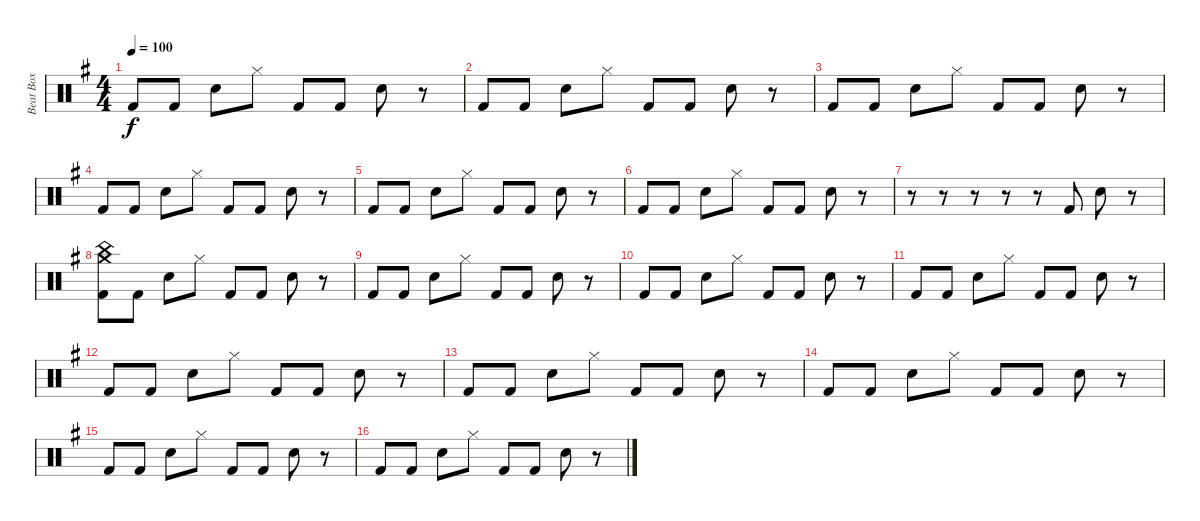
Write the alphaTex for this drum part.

\track ("Beat Box" "Beat Box") {instrument percussion}
\staff {score}
\articulation defaults
\ts (4 4)
\tempo 100
\clef neutral
\ks g "Kick (hit) 2".8{dy f} "Kick (hit) 2".8 "Snare (hit) 2".8 "Hi-Hat (closed)".8 "Kick (hit) 2".8 "Kick (hit) 2".8 "Snare (hit) 2".8
r.8 |
"Kick (hit) 2".8 "Kick (hit) 2".8 "Snare (hit) 2".8 "Hi-Hat (closed)".8 "Kick (hit) 2".8 "Kick (hit) 2".8 "Snare (hit) 2".8 r.8 |
"Kick (hit) 2".8 "Kick (hit) 2".8 "Snare (hit) 2".8 "Hi-Hat (closed)".8 "Kick (hit) 2".8 "Kick (hit) 2".8 "Snare (hit) 2".8 r.8 |
"Kick (hit) 2".8 "Kick (hit) 2".8 "Snare (hit) 2".8 "Hi-Hat (closed)".8 "Kick (hit) 2".8 "Kick (hit) 2".8 "Snare (hit) 2".8 r.8 |
"Kick (hit) 2".8 "Kick (hit) 2".8 "Snare (hit) 2".8 "Hi-Hat (closed)".8 "Kick (hit) 2".8 "Kick (hit) 2".8 "Snare (hit) 2".8 r.8 |
"Kick (hit) 2".8 "Kick (hit) 2".8 "Snare (hit) 2".8 "Hi-Hat (closed)".8 "Kick (hit) 2".8 "Kick (hit) 2".8 "Snare (hit) 2".8 r.8 |
r.8 r.8 r.8 r.8 r.8 "Kick (hit) 2".8 "Snare (hit) 2".8 r.8 |
("China (hit)" "Crash medium (hit)" "Kick (hit) 2").8 "Kick (hit) 2".8 "Snare (hit) 2".8 "Hi-Hat (closed)".8 "Kick (hit) 2".8 "Kick (hit) 2".8 "Snare (hit) 2".8 r.8 |
"Kick (hit) 2".8 "Kick (hit) 2".8 "Snare (hit) 2".8 "Hi-Hat (closed)".8 "Kick (hit) 2".8 "Kick (hit) 2".8 "Snare (hit) 2".8 r.8 |
"Kick (hit) 2".8 "Kick (hit) 2".8 "Snare (hit) 2".8 "Hi-Hat (closed)".8 "Kick (hit) 2".8 "Kick (hit) 2".8 "Snare (hit) 2".8 r.8 |
"Kick (hit) 2".8 "Kick (hit) 2".8 "Snare (hit) 2".8 "Hi-Hat (closed)".8 "Kick (hit) 2".8 "Kick (hit) 2".8 "Snare (hit) 2".8 r.8 |
"Kick (hit) 2".8 "Kick (hit) 2".8 "Snare (hit) 2".8 "Hi-Hat (closed)".8 "Kick (hit) 2".8 "Kick (hit) 2".8 "Snare (hit) 2".8 r.8 |
"Kick (hit) 2".8 "Kick (hit) 2".8 "Snare (hit) 2".8 "Hi-Hat (closed)".8 "Kick (hit) 2".8 "Kick (hit) 2".8 "Snare (hit) 2".8 r.8 |
"Kick (hit) 2".8 "Kick (hit) 2".8 "Snare (hit) 2".8 "Hi-Hat (closed)".8 "Kick (hit) 2".8 "Kick (hit) 2".8 "Snare (hit) 2".8 r.8 |
"Kick (hit) 2".8 "Kick (hit) 2".8 "Snare (hit) 2".8 "Hi-Hat (closed)".8 "Kick (hit) 2".8 "Kick (hit) 2".8 "Snare (hit) 2".8 r.8 |
"Kick (hit) 2".8 "Kick (hit) 2".8 "Snare (hit) 2".8 "Hi-Hat (closed)".8 "Kick (hit) 2".8 "Kick (hit) 2".8 "Snare (hit) 2".8 r.8
